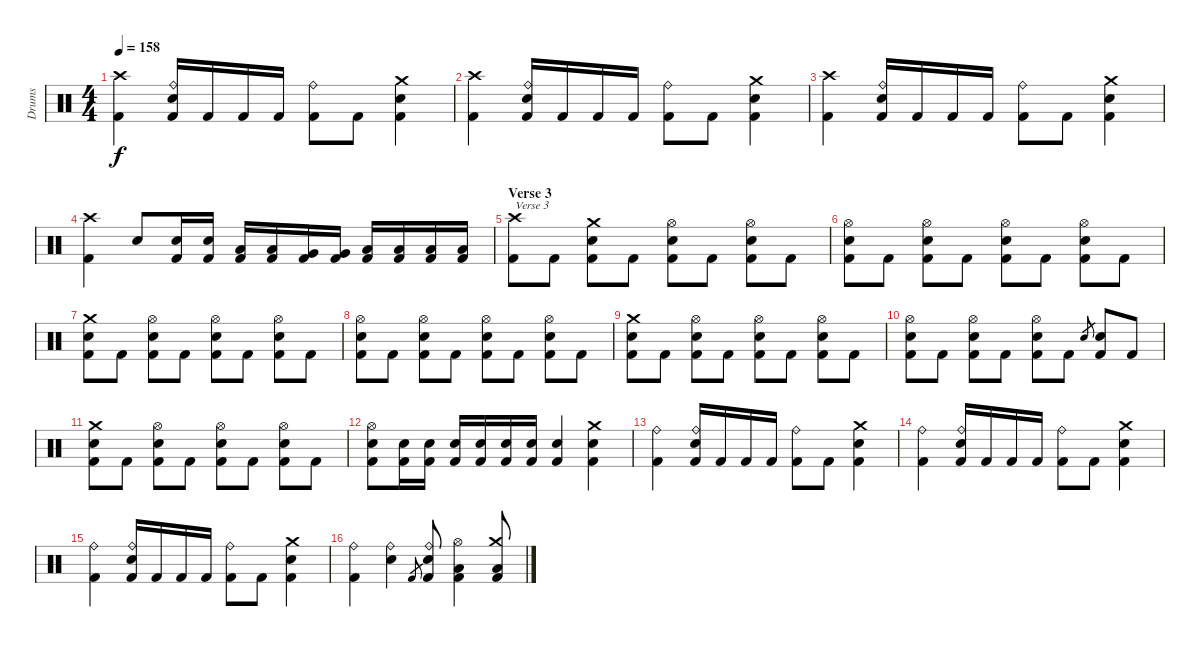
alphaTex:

\track ("Drums" "Drums") {instrument percussion}
\staff {score}
\articulation defaults
\ts (4 4)
\tempo 158
\clef neutral
\ks c
("Crash high (hit)" "Kick (hit) 2").4{dy f} ("Ride (bell)" "Electric Snare (hit)" "Kick (hit) 2").16 "Kick (hit) 2".16 "Kick (hit) 2".16 "Kick (hit) 2".16 ("Ride (bell)" "Kick (hit) 2").8 "Kick (hit) 2".8 ("Crash medium (hit)" "Electric Snare (hit)" "Kick (hit) 2").4 |
("Crash high (hit)" "Kick (hit) 2").4 ("Ride (bell)" "Electric Snare (hit)" "Kick (hit) 2").16 "Kick (hit) 2".16 "Kick (hit) 2".16 "Kick (hit) 2".16 ("Ride (bell)" "Kick (hit) 2").8 "Kick (hit) 2".8 ("Crash medium (hit)" "Electric Snare (hit)" "Kick (hit) 2").4 |
("Crash high (hit)" "Kick (hit) 2").4 ("Ride (bell)" "Electric Snare (hit)" "Kick (hit) 2").16 "Kick (hit) 2".16 "Kick (hit) 2".16 "Kick (hit) 2".16 ("Ride (bell)" "Kick (hit) 2").8 "Kick (hit) 2".8 ("Crash medium (hit)" "Electric Snare (hit)" "Kick (hit) 2").4 |
("Crash high (hit)" "Kick (hit) 2").4 "Electric Snare (hit)".8 ("Electric Snare (hit)" "Kick (hit) 2").16 ("Electric Snare (hit)" "Kick (hit) 2").16 ("Low Floor Tom (hit)" "Kick (hit) 2").16 ("Low Floor Tom (hit)" "Kick (hit) 2").16 ("Very Low Tom (hit)" "Kick (hit) 2").16 ("Very Low Tom (hit)" "Kick (hit) 2").16 ("Low Tom (hit)" "Kick (hit) 2").16 ("Low Tom (hit)" "Kick (hit) 2").16 ("Low Tom (hit)" "Kick (hit) 2").16 ("Low Tom (hit)" "Kick (hit) 2").16 |
\section ("" "Verse 3")
("Crash high (hit)" "Kick (hit) 2").8{txt "Verse 3"} "Kick (hit) 2".8 ("Crash medium (hit)" "Electric Snare (hit)" "Kick (hit) 2").8 "Kick (hit) 2".8 ("Hi-Hat (open)" "Electric Snare (hit)" "Kick (hit) 2").8 "Kick (hit) 2".8 ("Hi-Hat (open)" "Electric Snare (hit)" "Kick (hit) 2").8 "Kick (hit) 2".8 |
("Hi-Hat (open)" "Electric Snare (hit)" "Kick (hit) 2").8 "Kick (hit) 2".8 ("Hi-Hat (open)" "Electric Snare (hit)" "Kick (hit) 2").8 "Kick (hit) 2".8 ("Hi-Hat (open)" "Electric Snare (hit)" "Kick (hit) 2").8 "Kick (hit) 2".8 ("Hi-Hat (open)" "Electric Snare (hit)" "Kick (hit) 2").8 "Kick (hit) 2".8 |
("Crash medium (hit)" "Electric Snare (hit)" "Kick (hit) 2").8 "Kick (hit) 2".8 ("Hi-Hat (open)" "Electric Snare (hit)" "Kick (hit) 2").8 "Kick (hit) 2".8 ("Hi-Hat (open)" "Electric Snare (hit)" "Kick (hit) 2").8 "Kick (hit) 2".8 ("Hi-Hat (open)" "Electric Snare (hit)" "Kick (hit) 2").8 "Kick (hit) 2".8 |
("Hi-Hat (open)" "Electric Snare (hit)" "Kick (hit) 2").8 "Kick (hit) 2".8 ("Hi-Hat (open)" "Electric Snare (hit)" "Kick (hit) 2").8 "Kick (hit) 2".8 ("Hi-Hat (open)" "Electric Snare (hit)" "Kick (hit) 2").8 "Kick (hit) 2".8 ("Hi-Hat (open)" "Electric Snare (hit)" "Kick (hit) 2").8 "Kick (hit) 2".8 |
("Crash medium (hit)" "Electric Snare (hit)" "Kick (hit) 2").8 "Kick (hit) 2".8 ("Hi-Hat (open)" "Electric Snare (hit)" "Kick (hit) 2").8 "Kick (hit) 2".8 ("Hi-Hat (open)" "Electric Snare (hit)" "Kick (hit) 2").8 "Kick (hit) 2".8 ("Hi-Hat (open)" "Electric Snare (hit)" "Kick (hit) 2").8 "Kick (hit) 2".8 |
("Hi-Hat (open)" "Electric Snare (hit)" "Kick (hit) 2").8 "Kick (hit) 2".8 ("Hi-Hat (open)" "Electric Snare (hit)" "Kick (hit) 2").8 "Kick (hit) 2".8 ("Hi-Hat (open)" "Electric Snare (hit)" "Kick (hit) 2").8 "Kick (hit) 2".8 "Electric Snare (hit)".8{gr} ("Electric Snare (hit)" "Kick (hit) 2").8 "Kick (hit) 2".8 |
("Crash medium (hit)" "Electric Snare (hit)" "Kick (hit) 2").8 "Kick (hit) 2".8 ("Hi-Hat (open)" "Electric Snare (hit)" "Kick (hit) 2").8 "Kick (hit) 2".8 ("Hi-Hat (open)" "Electric Snare (hit)" "Kick (hit) 2").8 "Kick (hit) 2".8 ("Hi-Hat (open)" "Electric Snare (hit)" "Kick (hit) 2").8 "Kick (hit) 2".8 |
("Hi-Hat (open)" "Electric Snare (hit)" "Kick (hit) 2").8 ("Electric Snare (hit)" "Kick (hit) 2").16 ("Electric Snare (hit)" "Kick (hit) 2").16 ("Electric Snare (hit)" "Kick (hit) 2").16 ("Electric Snare (hit)" "Kick (hit) 2").16 ("Electric Snare (hit)" "Kick (hit) 2").16 ("Electric Snare (hit)" "Kick (hit) 2").16 ("Electric Snare (hit)" "Kick (hit) 2").4 ("Crash medium (hit)" "Electric Snare (hit)" "Kick (hit) 2").4 |
("Ride (bell)" "Kick (hit) 2").4 ("Ride (bell)" "Electric Snare (hit)" "Kick (hit) 2").16 "Kick (hit) 2".16 "Kick (hit) 2".16 "Kick (hit) 2".16 ("Ride (bell)" "Kick (hit) 2").8 "Kick (hit) 2".8 ("Crash medium (hit)" "Electric Snare (hit)" "Kick (hit) 2").4 |
("Ride (bell)" "Kick (hit) 2").4 ("Ride (bell)" "Electric Snare (hit)" "Kick (hit) 2").16 "Kick (hit) 2".16 "Kick (hit) 2".16 "Kick (hit) 2".16 ("Ride (bell)" "Kick (hit) 2").8 "Kick (hit) 2".8 ("Crash medium (hit)" "Electric Snare (hit)" "Kick (hit) 2").4 |
("Ride (bell)" "Kick (hit) 2").4 ("Ride (bell)" "Electric Snare (hit)" "Kick (hit) 2").16 "Kick (hit) 2".16 "Kick (hit) 2".16 "Kick (hit) 2".16 ("Ride (bell)" "Kick (hit) 2").8 "Kick (hit) 2".8 ("Crash medium (hit)" "Electric Snare (hit)" "Kick (hit) 2").4 |
("Ride (bell)" "Kick (hit) 2").4 ("Ride (bell)" "Electric Snare (hit)").4 "Kick (hit) 2".8{gr} ("Ride (bell)" "Electric Snare (hit)" "Kick (hit) 2").8 ("Hi-Hat (open)" "Low Floor Tom (hit)" "Kick (hit) 2").4 ("Crash medium (hit)" "Low Floor Tom (hit)" "Kick (hit) 2").8
